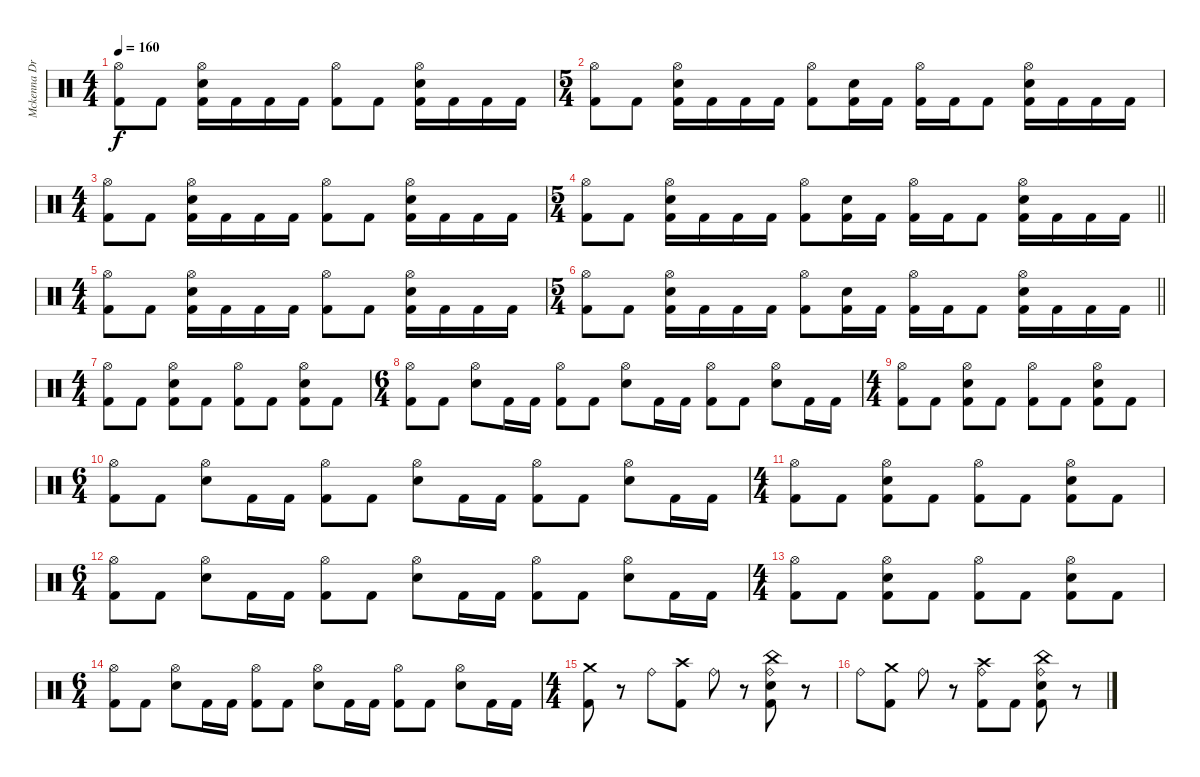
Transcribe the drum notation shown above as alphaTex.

\track ("Mckenna Drums" "Mckenna Dr") {instrument percussion}
\staff {score}
\articulation defaults
\ts (4 4)
\tempo 160
\clef neutral
\ks c
("Hi-Hat (open)" "Kick (hit) 2").8{dy f} "Kick (hit) 2".8 ("Hi-Hat (open)" "Electric Snare (hit)" "Kick (hit) 2").16 "Kick (hit) 2".16 "Kick (hit) 2".16 "Kick (hit) 2".16 ("Hi-Hat (open)" "Kick (hit) 2").8 "Kick (hit) 2".8 ("Hi-Hat (open)" "Electric Snare (hit)" "Kick (hit) 2").16 "Kick (hit) 2".16 "Kick (hit) 2".16 "Kick (hit) 2".16 |
\ts (5 4)
("Hi-Hat (open)" "Kick (hit) 2").8 "Kick (hit) 2".8 ("Hi-Hat (open)" "Electric Snare (hit)" "Kick (hit) 2").16 "Kick (hit) 2".16 "Kick (hit) 2".16 "Kick (hit) 2".16 ("Hi-Hat (open)" "Kick (hit) 2").8 ("Electric Snare (hit)" "Kick (hit) 2").16 "Kick (hit) 2".16 ("Hi-Hat (open)" "Kick (hit) 2").16 "Kick (hit) 2".16 "Kick (hit) 2".8 ("Hi-Hat (open)" "Electric Snare (hit)" "Kick (hit) 2").16 "Kick (hit) 2".16 "Kick (hit) 2".16 "Kick (hit) 2".16 |
\ts (4 4)
("Hi-Hat (open)" "Kick (hit) 2").8 "Kick (hit) 2".8 ("Hi-Hat (open)" "Electric Snare (hit)" "Kick (hit) 2").16 "Kick (hit) 2".16 "Kick (hit) 2".16 "Kick (hit) 2".16 ("Hi-Hat (open)" "Kick (hit) 2").8 "Kick (hit) 2".8 ("Hi-Hat (open)" "Electric Snare (hit)" "Kick (hit) 2").16 "Kick (hit) 2".16 "Kick (hit) 2".16 "Kick (hit) 2".16 |
\ts (5 4)
\barLineRight lightlight
("Hi-Hat (open)" "Kick (hit) 2").8 "Kick (hit) 2".8 ("Hi-Hat (open)" "Electric Snare (hit)" "Kick (hit) 2").16 "Kick (hit) 2".16 "Kick (hit) 2".16 "Kick (hit) 2".16 ("Hi-Hat (open)" "Kick (hit) 2").8 ("Electric Snare (hit)" "Kick (hit) 2").16 "Kick (hit) 2".16 ("Hi-Hat (open)" "Kick (hit) 2").16 "Kick (hit) 2".16 "Kick (hit) 2".8 ("Hi-Hat (open)" "Electric Snare (hit)" "Kick (hit) 2").16 "Kick (hit) 2".16 "Kick (hit) 2".16 "Kick (hit) 2".16 |
\ts (4 4)
("Hi-Hat (open)" "Kick (hit) 2").8 "Kick (hit) 2".8 ("Hi-Hat (open)" "Electric Snare (hit)" "Kick (hit) 2").16 "Kick (hit) 2".16 "Kick (hit) 2".16 "Kick (hit) 2".16 ("Hi-Hat (open)" "Kick (hit) 2").8 "Kick (hit) 2".8 ("Hi-Hat (open)" "Electric Snare (hit)" "Kick (hit) 2").16 "Kick (hit) 2".16 "Kick (hit) 2".16 "Kick (hit) 2".16 |
\ts (5 4)
\barLineRight lightlight
("Hi-Hat (open)" "Kick (hit) 2").8 "Kick (hit) 2".8 ("Hi-Hat (open)" "Electric Snare (hit)" "Kick (hit) 2").16 "Kick (hit) 2".16 "Kick (hit) 2".16 "Kick (hit) 2".16 ("Hi-Hat (open)" "Kick (hit) 2").8 ("Electric Snare (hit)" "Kick (hit) 2").16 "Kick (hit) 2".16 ("Hi-Hat (open)" "Kick (hit) 2").16 "Kick (hit) 2".16 "Kick (hit) 2".8 ("Hi-Hat (open)" "Electric Snare (hit)" "Kick (hit) 2").16 "Kick (hit) 2".16 "Kick (hit) 2".16 "Kick (hit) 2".16 |
\ts (4 4)
("Hi-Hat (open)" "Kick (hit) 2").8 "Kick (hit) 2".8 ("Hi-Hat (open)" "Electric Snare (hit)" "Kick (hit) 2").8 "Kick (hit) 2".8 ("Hi-Hat (open)" "Kick (hit) 2").8 "Kick (hit) 2".8 ("Hi-Hat (open)" "Electric Snare (hit)" "Kick (hit) 2").8 "Kick (hit) 2".8 |
\ts (6 4)
("Hi-Hat (open)" "Kick (hit) 2").8 "Kick (hit) 2".8 ("Hi-Hat (open)" "Electric Snare (hit)").8 "Kick (hit) 2".16 "Kick (hit) 2".16 ("Hi-Hat (open)" "Kick (hit) 2").8 "Kick (hit) 2".8 ("Hi-Hat (open)" "Electric Snare (hit)").8 "Kick (hit) 2".16 "Kick (hit) 2".16 ("Hi-Hat (open)" "Kick (hit) 2").8 "Kick (hit) 2".8 ("Hi-Hat (open)" "Electric Snare (hit)").8 "Kick (hit) 2".16 "Kick (hit) 2".16 |
\ts (4 4)
("Hi-Hat (open)" "Kick (hit) 2").8 "Kick (hit) 2".8 ("Hi-Hat (open)" "Electric Snare (hit)" "Kick (hit) 2").8 "Kick (hit) 2".8 ("Hi-Hat (open)" "Kick (hit) 2").8 "Kick (hit) 2".8 ("Hi-Hat (open)" "Electric Snare (hit)" "Kick (hit) 2").8 "Kick (hit) 2".8 |
\ts (6 4)
("Hi-Hat (open)" "Kick (hit) 2").8 "Kick (hit) 2".8 ("Hi-Hat (open)" "Electric Snare (hit)").8 "Kick (hit) 2".16 "Kick (hit) 2".16 ("Hi-Hat (open)" "Kick (hit) 2").8 "Kick (hit) 2".8 ("Hi-Hat (open)" "Electric Snare (hit)").8 "Kick (hit) 2".16 "Kick (hit) 2".16 ("Hi-Hat (open)" "Kick (hit) 2").8 "Kick (hit) 2".8 ("Hi-Hat (open)" "Electric Snare (hit)").8 "Kick (hit) 2".16 "Kick (hit) 2".16 |
\ts (4 4)
("Hi-Hat (open)" "Kick (hit) 2").8 "Kick (hit) 2".8 ("Hi-Hat (open)" "Electric Snare (hit)" "Kick (hit) 2").8 "Kick (hit) 2".8 ("Hi-Hat (open)" "Kick (hit) 2").8 "Kick (hit) 2".8 ("Hi-Hat (open)" "Electric Snare (hit)" "Kick (hit) 2").8 "Kick (hit) 2".8 |
\ts (6 4)
("Hi-Hat (open)" "Kick (hit) 2").8 "Kick (hit) 2".8 ("Hi-Hat (open)" "Electric Snare (hit)").8 "Kick (hit) 2".16 "Kick (hit) 2".16 ("Hi-Hat (open)" "Kick (hit) 2").8 "Kick (hit) 2".8 ("Hi-Hat (open)" "Electric Snare (hit)").8 "Kick (hit) 2".16 "Kick (hit) 2".16 ("Hi-Hat (open)" "Kick (hit) 2").8 "Kick (hit) 2".8 ("Hi-Hat (open)" "Electric Snare (hit)").8 "Kick (hit) 2".16 "Kick (hit) 2".16 |
\ts (4 4)
("Hi-Hat (open)" "Kick (hit) 2").8 "Kick (hit) 2".8 ("Hi-Hat (open)" "Electric Snare (hit)" "Kick (hit) 2").8 "Kick (hit) 2".8 ("Hi-Hat (open)" "Kick (hit) 2").8 "Kick (hit) 2".8 ("Hi-Hat (open)" "Electric Snare (hit)" "Kick (hit) 2").8 "Kick (hit) 2".8 |
\ts (6 4)
("Hi-Hat (open)" "Kick (hit) 2").8 "Kick (hit) 2".8 ("Hi-Hat (open)" "Electric Snare (hit)").8 "Kick (hit) 2".16 "Kick (hit) 2".16 ("Hi-Hat (open)" "Kick (hit) 2").8 "Kick (hit) 2".8 ("Hi-Hat (open)" "Electric Snare (hit)").8 "Kick (hit) 2".16 "Kick (hit) 2".16 ("Hi-Hat (open)" "Kick (hit) 2").8 "Kick (hit) 2".8 ("Hi-Hat (open)" "Electric Snare (hit)").8 "Kick (hit) 2".16 "Kick (hit) 2".16 |
\ts (4 4)
("Crash medium (hit)" "Kick (hit) 2").8 r.8 "Ride (bell)".8 ("Crash high (hit)" "Kick (hit) 2").8 "Ride (bell)".8 r.8 ("China (hit)" "Ride (bell)" "Electric Snare (hit)" "Kick (hit) 2").8 r.8 |
"Ride (bell)".8 ("Crash medium (hit)" "Kick (hit) 2").8 "Ride (bell)".8 r.8 ("Crash high (hit)" "Ride (bell)" "Kick (hit) 2").8 "Kick (hit) 2".8 ("China (hit)" "Ride (bell)" "Electric Snare (hit)" "Kick (hit) 2").8 r.8
